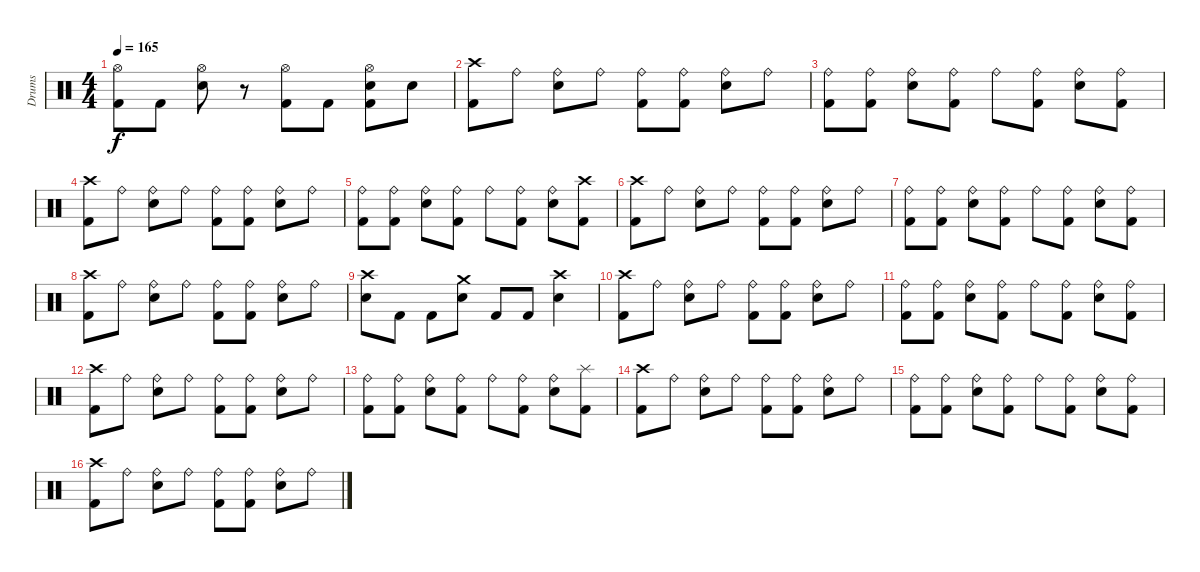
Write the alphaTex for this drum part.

\track ("Drums" "Drums") {instrument percussion}
\staff {score}
\articulation defaults
\ts (4 4)
\tempo 165
\clef neutral
\ks c
("Hi-Hat (open)" "Kick (hit) 2").8{dy f} "Kick (hit) 2".8 ("Hi-Hat (open)" "Snare (hit) 2").8 r.8 ("Hi-Hat (open)" "Kick (hit) 2").8 "Kick (hit) 2".8 ("Hi-Hat (open)" "Snare (hit) 2" "Kick (hit) 2").8 "Snare (hit) 2".8 |
("Crash high (hit)" "Kick (hit) 2").8 "Ride (bell)".8 ("Ride (bell)" "Snare (hit) 2").8 "Ride (bell)".8 ("Ride (bell)" "Kick (hit) 2").8 ("Ride (bell)" "Kick (hit) 2").8 ("Ride (bell)" "Snare (hit) 2").8 "Ride (bell)".8 |
("Ride (bell)" "Kick (hit) 2").8 ("Ride (bell)" "Kick (hit) 2").8 ("Ride (bell)" "Snare (hit) 2").8 ("Ride (bell)" "Kick (hit) 2").8 "Ride (bell)".8 ("Ride (bell)" "Kick (hit) 2").8 ("Ride (bell)" "Snare (hit) 2").8 ("Ride (bell)" "Kick (hit) 2").8 |
("Crash high (hit)" "Kick (hit) 2").8 "Ride (bell)".8 ("Ride (bell)" "Snare (hit) 2").8 "Ride (bell)".8 ("Ride (bell)" "Kick (hit) 2").8 ("Ride (bell)" "Kick (hit) 2").8 ("Ride (bell)" "Snare (hit) 2").8 "Ride (bell)".8 |
("Ride (bell)" "Kick (hit) 2").8 ("Ride (bell)" "Kick (hit) 2").8 ("Ride (bell)" "Snare (hit) 2").8 ("Ride (bell)" "Kick (hit) 2").8 "Ride (bell)".8 ("Ride (bell)" "Kick (hit) 2").8 ("Ride (bell)" "Snare (hit) 2").8 ("Crash high (hit)" "Kick (hit) 2").8 |
("Crash high (hit)" "Kick (hit) 2").8 "Ride (bell)".8 ("Ride (bell)" "Snare (hit) 2").8 "Ride (bell)".8 ("Ride (bell)" "Kick (hit) 2").8 ("Ride (bell)" "Kick (hit) 2").8 ("Ride (bell)" "Snare (hit) 2").8 "Ride (bell)".8 |
("Ride (bell)" "Kick (hit) 2").8 ("Ride (bell)" "Kick (hit) 2").8 ("Ride (bell)" "Snare (hit) 2").8 ("Ride (bell)" "Kick (hit) 2").8 "Ride (bell)".8 ("Ride (bell)" "Kick (hit) 2").8 ("Ride (bell)" "Snare (hit) 2").8 ("Ride (bell)" "Kick (hit) 2").8 |
("Crash high (hit)" "Kick (hit) 2").8 "Ride (bell)".8 ("Ride (bell)" "Snare (hit) 2").8 "Ride (bell)".8 ("Ride (bell)" "Kick (hit) 2").8 ("Ride (bell)" "Kick (hit) 2").8 ("Ride (bell)" "Snare (hit) 2").8 "Ride (bell)".8 |
("Crash high (hit)" "Snare (hit) 2").8 "Kick (hit) 2".8 "Kick (hit) 2".8 ("Crash medium (hit)" "Snare (hit) 2").8 "Kick (hit) 2".8 "Kick (hit) 2".8 ("Crash high (hit)" "Snare (hit) 2").4 |
("Crash high (hit)" "Kick (hit) 2").8 "Ride (bell)".8 ("Ride (bell)" "Snare (hit) 2").8 "Ride (bell)".8 ("Ride (bell)" "Kick (hit) 2").8 ("Ride (bell)" "Kick (hit) 2").8 ("Ride (bell)" "Snare (hit) 2").8 "Ride (bell)".8 |
("Ride (bell)" "Kick (hit) 2").8 ("Ride (bell)" "Kick (hit) 2").8 ("Ride (bell)" "Snare (hit) 2").8 ("Ride (bell)" "Kick (hit) 2").8 "Ride (bell)".8 ("Ride (bell)" "Kick (hit) 2").8 ("Ride (bell)" "Snare (hit) 2").8 ("Ride (bell)" "Kick (hit) 2").8 |
("Crash high (hit)" "Kick (hit) 2").8 "Ride (bell)".8 ("Ride (bell)" "Snare (hit) 2").8 "Ride (bell)".8 ("Ride (bell)" "Kick (hit) 2").8 ("Ride (bell)" "Kick (hit) 2").8 ("Ride (bell)" "Snare (hit) 2").8 "Ride (bell)".8 |
("Ride (bell)" "Kick (hit) 2").8 ("Ride (bell)" "Kick (hit) 2").8 ("Ride (bell)" "Snare (hit) 2").8 ("Ride (bell)" "Kick (hit) 2").8 "Ride (bell)".8 ("Ride (bell)" "Kick (hit) 2").8 ("Ride (bell)" "Snare (hit) 2").8 ("Splash (hit)" "Kick (hit) 2").8 |
("Crash high (hit)" "Kick (hit) 2").8 "Ride (bell)".8 ("Ride (bell)" "Snare (hit) 2").8 "Ride (bell)".8 ("Ride (bell)" "Kick (hit) 2").8 ("Ride (bell)" "Kick (hit) 2").8 ("Ride (bell)" "Snare (hit) 2").8 "Ride (bell)".8 |
("Ride (bell)" "Kick (hit) 2").8 ("Ride (bell)" "Kick (hit) 2").8 ("Ride (bell)" "Snare (hit) 2").8 ("Ride (bell)" "Kick (hit) 2").8 "Ride (bell)".8 ("Ride (bell)" "Kick (hit) 2").8 ("Ride (bell)" "Snare (hit) 2").8 ("Ride (bell)" "Kick (hit) 2").8 |
("Crash high (hit)" "Kick (hit) 2").8 "Ride (bell)".8 ("Ride (bell)" "Snare (hit) 2").8 "Ride (bell)".8 ("Ride (bell)" "Kick (hit) 2").8 ("Ride (bell)" "Kick (hit) 2").8 ("Ride (bell)" "Snare (hit) 2").8 "Ride (bell)".8
